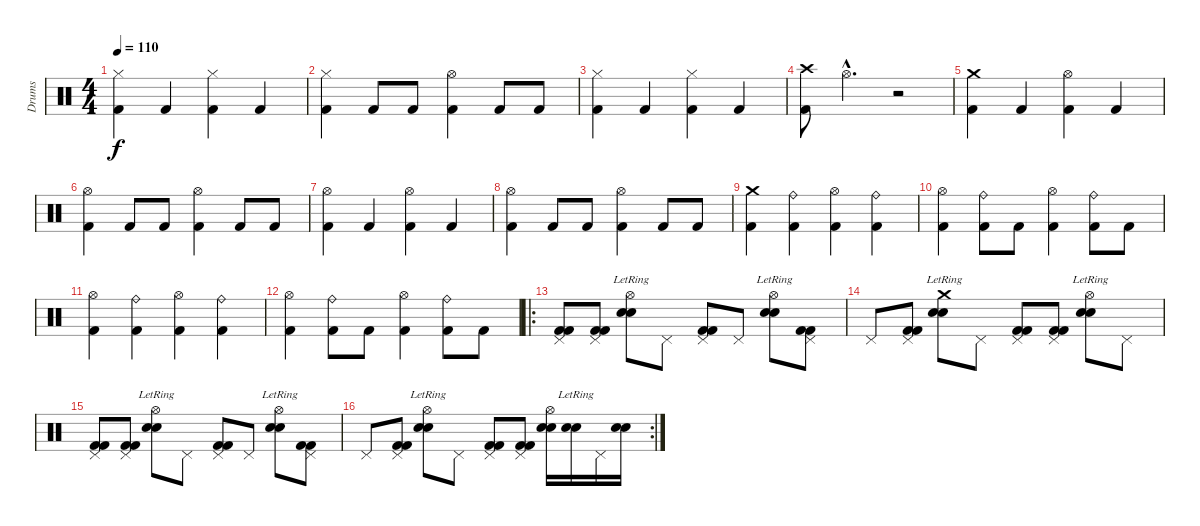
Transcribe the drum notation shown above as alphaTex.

\track ("Drums" "Drums") {instrument percussion}
\staff {score}
\articulation defaults
\ts (4 4)
\tempo 110
\clef neutral
\ks c
("Hi-Hat (closed)" "Kick (hit) 2").4{dy f} "Kick (hit) 2".4 ("Hi-Hat (closed)" "Kick (hit) 2").4 "Kick (hit) 2".4 |
("Hi-Hat (closed)" "Kick (hit) 2").4 "Kick (hit) 2".8 "Kick (hit) 2".8 ("Hi-Hat (open)" "Kick (hit) 2").4 "Kick (hit) 2".8 "Kick (hit) 2".8 |
("Hi-Hat (closed)" "Kick (hit) 2").4 "Kick (hit) 2".4 ("Hi-Hat (closed)" "Kick (hit) 2").4 "Kick (hit) 2".4 |
("Crash high (hit)" "Kick (hit) 2").8 "Hi-Hat (open)"{hac}.4{d} r.2 |
("Crash medium (hit)" "Kick (hit) 2").4 "Kick (hit) 2".4 ("Hi-Hat (open)" "Kick (hit) 2").4 "Kick (hit) 2".4 |
("Hi-Hat (open)" "Kick (hit) 2").4 "Kick (hit) 2".8 "Kick (hit) 2".8 ("Hi-Hat (open)" "Kick (hit) 2").4 "Kick (hit) 2".8 "Kick (hit) 2".8 |
("Hi-Hat (open)" "Kick (hit) 2").4 "Kick (hit) 2".4 ("Hi-Hat (open)" "Kick (hit) 2").4 "Kick (hit) 2".4 |
("Hi-Hat (open)" "Kick (hit) 2").4 "Kick (hit) 2".8 "Kick (hit) 2".8 ("Hi-Hat (open)" "Kick (hit) 2").4 "Kick (hit) 2".8 "Kick (hit) 2".8 |
("Crash medium (hit)" "Kick (hit) 2").4 ("Ride (bell)" "Kick (hit) 2").4 ("Hi-Hat (open)" "Kick (hit) 2").4 ("Ride (bell)" "Kick (hit) 2").4 |
("Hi-Hat (open)" "Kick (hit) 2").4 ("Ride (bell)" "Kick (hit) 2").8 "Kick (hit) 2".8 ("Hi-Hat (open)" "Kick (hit) 2").4 ("Ride (bell)" "Kick (hit) 2").8 "Kick (hit) 2".8 |
("Hi-Hat (open)" "Kick (hit) 2").4 ("Ride (bell)" "Kick (hit) 2").4 ("Hi-Hat (open)" "Kick (hit) 2").4 ("Ride (bell)" "Kick (hit) 2").4 |
("Hi-Hat (open)" "Kick (hit) 2").4 ("Ride (bell)" "Kick (hit) 2").8 "Kick (hit) 2".8 ("Hi-Hat (open)" "Kick (hit) 2").4 ("Ride (bell)" "Kick (hit) 2").8 "Kick (hit) 2".8 |
\ro
("Pedal Hi-Hat (hit)" "Kick (hit) 2" "Kick (hit) 2").8 ("Pedal Hi-Hat (hit)" "Kick (hit) 2" "Kick (hit) 2").8 ("Hi-Hat (open)" "Electric Snare (hit)"{lr} "Snare (hit) 2").8 "Pedal Hi-Hat (hit)".8 ("Pedal Hi-Hat (hit)" "Kick (hit) 2" "Kick (hit) 2").8 "Pedal Hi-Hat (hit)".8 ("Hi-Hat (open)" "Electric Snare (hit)"{lr} "Snare (hit) 2").8 ("Pedal Hi-Hat (hit)" "Kick (hit) 2" "Kick (hit) 2").8 |
"Pedal Hi-Hat (hit)".8 ("Pedal Hi-Hat (hit)" "Kick (hit) 2" "Kick (hit) 2").8 ("Crash medium (hit)" "Electric Snare (hit)"{lr} "Snare (hit) 2").8 "Pedal Hi-Hat (hit)".8 ("Pedal Hi-Hat (hit)" "Kick (hit) 2" "Kick (hit) 2").8 ("Pedal Hi-Hat (hit)" "Kick (hit) 2" "Kick (hit) 2").8 ("Hi-Hat (open)" "Electric Snare (hit)"{lr} "Snare (hit) 2").8 "Pedal Hi-Hat (hit)".8 |
("Pedal Hi-Hat (hit)" "Kick (hit) 2" "Kick (hit) 2").8 ("Pedal Hi-Hat (hit)" "Kick (hit) 2" "Kick (hit) 2").8 ("Hi-Hat (open)" "Electric Snare (hit)"{lr} "Snare (hit) 2").8 "Pedal Hi-Hat (hit)".8 ("Pedal Hi-Hat (hit)" "Kick (hit) 2" "Kick (hit) 2").8 "Pedal Hi-Hat (hit)".8 ("Hi-Hat (open)" "Electric Snare (hit)"{lr} "Snare (hit) 2").8 ("Pedal Hi-Hat (hit)" "Kick (hit) 2" "Kick (hit) 2").8 |
\rc 2 "Pedal Hi-Hat (hit)".8
("Pedal Hi-Hat (hit)" "Kick (hit) 2" "Kick (hit) 2").8 ("Hi-Hat (open)" "Electric Snare (hit)"{lr} "Snare (hit) 2").8 "Pedal Hi-Hat (hit)".8 ("Pedal Hi-Hat (hit)" "Kick (hit) 2" "Kick (hit) 2").8 ("Pedal Hi-Hat (hit)" "Kick (hit) 2" "Kick (hit) 2").8 ("Hi-Hat (open)" "Electric Snare (hit)" "Snare (hit) 2").16 ("Electric Snare (hit)"{lr} "Snare (hit) 2").16 "Pedal Hi-Hat (hit)".16 ("Electric Snare (hit)" "Snare (hit) 2").16
